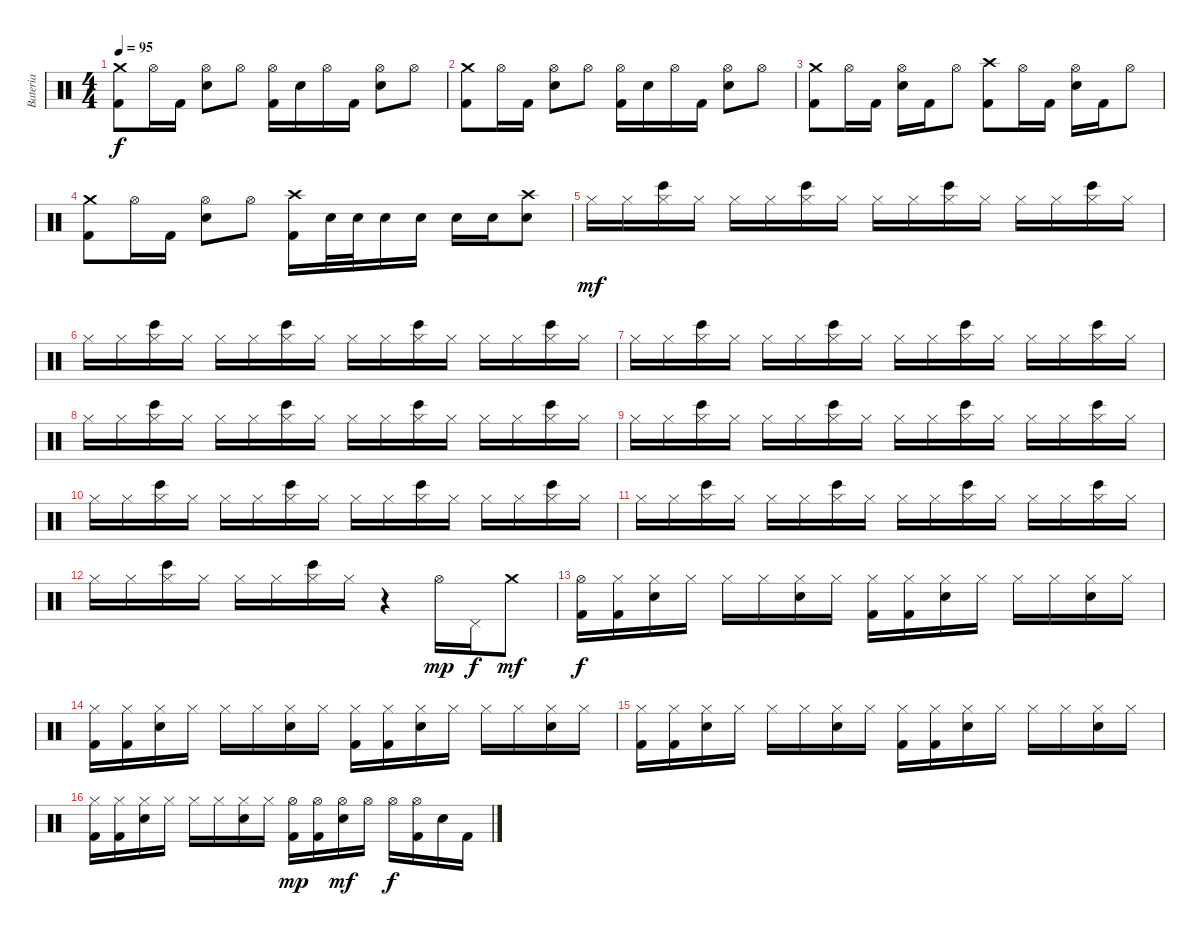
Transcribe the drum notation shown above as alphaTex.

\track ("Bateria" "Bateria") {instrument percussion}
\staff {score}
\articulation defaults
\ts (4 4)
\tempo 95
\clef neutral
\ks c
("Crash medium (hit)" "Kick (hit) 2").8{dy f} "Hi-Hat (open)".16 "Kick (hit) 2".16 ("Hi-Hat (open)" "Electric Snare (hit)").8 "Hi-Hat (open)".8 ("Hi-Hat (open)" "Kick (hit) 2").16 "Electric Snare (hit)".16 "Hi-Hat (open)".16 "Kick (hit) 2".16 ("Hi-Hat (open)" "Electric Snare (hit)").8 "Hi-Hat (open)".8 |
("Crash medium (hit)" "Kick (hit) 2").8 "Hi-Hat (open)".16 "Kick (hit) 2".16 ("Hi-Hat (open)" "Electric Snare (hit)").8 "Hi-Hat (open)".8 ("Hi-Hat (open)" "Kick (hit) 2").16 "Electric Snare (hit)".16 "Hi-Hat (open)".16 "Kick (hit) 2".16 ("Hi-Hat (open)" "Electric Snare (hit)").8 "Hi-Hat (open)".8 |
("Crash medium (hit)" "Kick (hit) 2").8 "Hi-Hat (open)".16 "Kick (hit) 2".16 ("Hi-Hat (open)" "Electric Snare (hit)").16 "Kick (hit) 2".16 "Hi-Hat (open)".8 ("Crash high (hit)" "Kick (hit) 2").8 "Hi-Hat (open)".16 "Kick (hit) 2".16 ("Hi-Hat (open)" "Electric Snare (hit)").16 "Kick (hit) 2".16 "Hi-Hat (open)".8 |
("Crash medium (hit)" "Kick (hit) 2").8 "Hi-Hat (open)".16 "Kick (hit) 2".16 ("Hi-Hat (open)" "Electric Snare (hit)").8 "Hi-Hat (open)".8 ("Crash high (hit)" "Kick (hit) 2").16 "Electric Snare (hit)".32 "Electric Snare (hit)".32 "Electric Snare (hit)".16 "Electric Snare (hit)".16 "Electric Snare (hit)".16 "Electric Snare (hit)".16 ("Crash high (hit)" "Electric Snare (hit)").8 |
"Hi-Hat (closed)".16{dy mf} "Hi-Hat (closed)".16 ("Hi-Hat (closed)" "Bongo High (hit)").16 "Hi-Hat (closed)".16 "Hi-Hat (closed)".16 "Hi-Hat (closed)".16 ("Hi-Hat (closed)" "Bongo High (hit)").16 "Hi-Hat (closed)".16 "Hi-Hat (closed)".16 "Hi-Hat (closed)".16 ("Hi-Hat (closed)" "Bongo High (hit)").16 "Hi-Hat (closed)".16 "Hi-Hat (closed)".16 "Hi-Hat (closed)".16 ("Hi-Hat (closed)" "Bongo High (hit)").16 "Hi-Hat (closed)".16 |
"Hi-Hat (closed)".16 "Hi-Hat (closed)".16 ("Hi-Hat (closed)" "Bongo High (hit)").16 "Hi-Hat (closed)".16 "Hi-Hat (closed)".16 "Hi-Hat (closed)".16 ("Hi-Hat (closed)" "Bongo High (hit)").16 "Hi-Hat (closed)".16 "Hi-Hat (closed)".16 "Hi-Hat (closed)".16 ("Hi-Hat (closed)" "Bongo High (hit)").16 "Hi-Hat (closed)".16 "Hi-Hat (closed)".16 "Hi-Hat (closed)".16 ("Hi-Hat (closed)" "Bongo High (hit)").16 "Hi-Hat (closed)".16 |
"Hi-Hat (closed)".16 "Hi-Hat (closed)".16 ("Hi-Hat (closed)" "Bongo High (hit)").16 "Hi-Hat (closed)".16 "Hi-Hat (closed)".16 "Hi-Hat (closed)".16 ("Hi-Hat (closed)" "Bongo High (hit)").16 "Hi-Hat (closed)".16 "Hi-Hat (closed)".16 "Hi-Hat (closed)".16 ("Hi-Hat (closed)" "Bongo High (hit)").16 "Hi-Hat (closed)".16 "Hi-Hat (closed)".16 "Hi-Hat (closed)".16 ("Hi-Hat (closed)" "Bongo High (hit)").16 "Hi-Hat (closed)".16 |
"Hi-Hat (closed)".16 "Hi-Hat (closed)".16 ("Hi-Hat (closed)" "Bongo High (hit)").16 "Hi-Hat (closed)".16 "Hi-Hat (closed)".16 "Hi-Hat (closed)".16 ("Hi-Hat (closed)" "Bongo High (hit)").16 "Hi-Hat (closed)".16 "Hi-Hat (closed)".16 "Hi-Hat (closed)".16 ("Hi-Hat (closed)" "Bongo High (hit)").16 "Hi-Hat (closed)".16 "Hi-Hat (closed)".16 "Hi-Hat (closed)".16 ("Hi-Hat (closed)" "Bongo High (hit)").16 "Hi-Hat (closed)".16 |
"Hi-Hat (closed)".16 "Hi-Hat (closed)".16 ("Hi-Hat (closed)" "Bongo High (hit)").16 "Hi-Hat (closed)".16 "Hi-Hat (closed)".16 "Hi-Hat (closed)".16 ("Hi-Hat (closed)" "Bongo High (hit)").16 "Hi-Hat (closed)".16 "Hi-Hat (closed)".16 "Hi-Hat (closed)".16 ("Hi-Hat (closed)" "Bongo High (hit)").16 "Hi-Hat (closed)".16 "Hi-Hat (closed)".16 "Hi-Hat (closed)".16 ("Hi-Hat (closed)" "Bongo High (hit)").16 "Hi-Hat (closed)".16 |
"Hi-Hat (closed)".16 "Hi-Hat (closed)".16 ("Hi-Hat (closed)" "Bongo High (hit)").16 "Hi-Hat (closed)".16 "Hi-Hat (closed)".16 "Hi-Hat (closed)".16 ("Hi-Hat (closed)" "Bongo High (hit)").16 "Hi-Hat (closed)".16 "Hi-Hat (closed)".16 "Hi-Hat (closed)".16 ("Hi-Hat (closed)" "Bongo High (hit)").16 "Hi-Hat (closed)".16 "Hi-Hat (closed)".16 "Hi-Hat (closed)".16 ("Hi-Hat (closed)" "Bongo High (hit)").16 "Hi-Hat (closed)".16 |
"Hi-Hat (closed)".16 "Hi-Hat (closed)".16 ("Hi-Hat (closed)" "Bongo High (hit)").16 "Hi-Hat (closed)".16 "Hi-Hat (closed)".16 "Hi-Hat (closed)".16 ("Hi-Hat (closed)" "Bongo High (hit)").16 "Hi-Hat (closed)".16 "Hi-Hat (closed)".16 "Hi-Hat (closed)".16 ("Hi-Hat (closed)" "Bongo High (hit)").16 "Hi-Hat (closed)".16 "Hi-Hat (closed)".16 "Hi-Hat (closed)".16 ("Hi-Hat (closed)" "Bongo High (hit)").16 "Hi-Hat (closed)".16 |
"Hi-Hat (closed)".16 "Hi-Hat (closed)".16 ("Hi-Hat (closed)" "Bongo High (hit)").16 "Hi-Hat (closed)".16 "Hi-Hat (closed)".16 "Hi-Hat (closed)".16 ("Hi-Hat (closed)" "Bongo High (hit)").16 "Hi-Hat (closed)".16 r.4 "Hi-Hat (open)".16{dy mp} "Pedal Hi-Hat (hit)".16{dy f} "Crash medium (hit)".8{dy mf} |
("Hi-Hat (open)" "Kick (hit) 2").16{dy f} ("Hi-Hat (closed)" "Kick (hit) 2").16 ("Hi-Hat (closed)" "Electric Snare (hit)").16 "Hi-Hat (closed)".16 "Hi-Hat (closed)".16 "Hi-Hat (closed)".16 ("Hi-Hat (closed)" "Electric Snare (hit)").16 "Hi-Hat (closed)".16 ("Hi-Hat (closed)" "Kick (hit) 2").16 ("Hi-Hat (closed)" "Kick (hit) 2").16 ("Hi-Hat (closed)" "Electric Snare (hit)").16 "Hi-Hat (closed)".16 "Hi-Hat (closed)".16 "Hi-Hat (closed)".16 ("Hi-Hat (closed)" "Electric Snare (hit)").16 "Hi-Hat (closed)".16 |
("Hi-Hat (closed)" "Kick (hit) 2").16 ("Hi-Hat (closed)" "Kick (hit) 2").16 ("Hi-Hat (closed)" "Electric Snare (hit)").16 "Hi-Hat (closed)".16 "Hi-Hat (closed)".16 "Hi-Hat (closed)".16 ("Hi-Hat (closed)" "Electric Snare (hit)").16 "Hi-Hat (closed)".16 ("Hi-Hat (closed)" "Kick (hit) 2").16 ("Hi-Hat (closed)" "Kick (hit) 2").16 ("Hi-Hat (closed)" "Electric Snare (hit)").16 "Hi-Hat (closed)".16 "Hi-Hat (closed)".16 "Hi-Hat (closed)".16 ("Hi-Hat (closed)" "Electric Snare (hit)").16 "Hi-Hat (closed)".16 |
("Hi-Hat (closed)" "Kick (hit) 2").16 ("Hi-Hat (closed)" "Kick (hit) 2").16 ("Hi-Hat (closed)" "Electric Snare (hit)").16 "Hi-Hat (closed)".16 "Hi-Hat (closed)".16 "Hi-Hat (closed)".16 ("Hi-Hat (closed)" "Electric Snare (hit)").16 "Hi-Hat (closed)".16 ("Hi-Hat (closed)" "Kick (hit) 2").16 ("Hi-Hat (closed)" "Kick (hit) 2").16 ("Hi-Hat (closed)" "Electric Snare (hit)").16 "Hi-Hat (closed)".16 "Hi-Hat (closed)".16 "Hi-Hat (closed)".16 ("Hi-Hat (closed)" "Electric Snare (hit)").16 "Hi-Hat (closed)".16 |
("Hi-Hat (closed)" "Kick (hit) 2").16 ("Hi-Hat (closed)" "Kick (hit) 2").16 ("Hi-Hat (closed)" "Electric Snare (hit)").16 "Hi-Hat (closed)".16 "Hi-Hat (closed)".16 "Hi-Hat (closed)".16 ("Hi-Hat (closed)" "Electric Snare (hit)").16 "Hi-Hat (closed)".16 ("Hi-Hat (open)" "Kick (hit) 2").16{dy mp} ("Hi-Hat (open)" "Kick (hit) 2").16 ("Hi-Hat (open)" "Electric Snare (hit)").16{dy mf} "Hi-Hat (open)".16 "Hi-Hat (open)".16{dy f} ("Hi-Hat (open)" "Kick (hit) 2").16 "Electric Snare (hit)".16 "Kick (hit) 2".16
